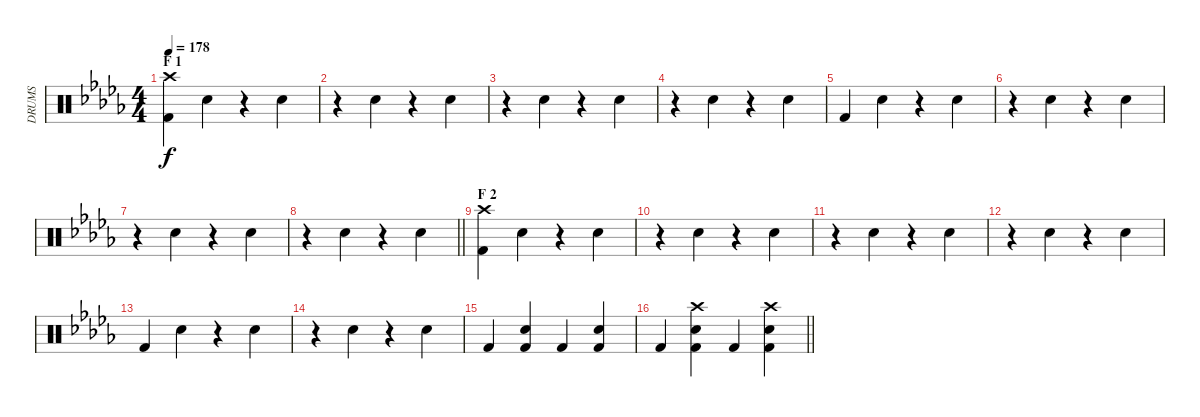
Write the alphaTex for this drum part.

\track ("DRUMS" "DRUMS") {instrument percussion}
\staff {score}
\articulation defaults
\ts (4 4)
\section ("" "F 1")
\tempo 178
\clef neutral
\ks db
("Crash high (hit)" "Kick (hit) 2").4{dy f} "Snare (hit) 2".4 r.4 "Snare (hit) 2".4 |
r.4 "Snare (hit) 2".4 r.4 "Snare (hit) 2".4 |
r.4 "Snare (hit) 2".4 r.4 "Snare (hit) 2".4 |
r.4 "Snare (hit) 2".4 r.4 "Snare (hit) 2".4 |
"Kick (hit) 2".4 "Snare (hit) 2".4 r.4 "Snare (hit) 2".4 |
r.4 "Snare (hit) 2".4 r.4 "Snare (hit) 2".4 |
r.4 "Snare (hit) 2".4 r.4 "Snare (hit) 2".4 |
\barLineRight lightlight
r.4 "Snare (hit) 2".4 r.4 "Snare (hit) 2".4 |
\section ("" "F 2")
("Crash high (hit)" "Kick (hit) 2").4 "Snare (hit) 2".4 r.4 "Snare (hit) 2".4 |
r.4 "Snare (hit) 2".4 r.4 "Snare (hit) 2".4 |
r.4 "Snare (hit) 2".4 r.4 "Snare (hit) 2".4 |
r.4 "Snare (hit) 2".4 r.4 "Snare (hit) 2".4 |
"Kick (hit) 2".4 "Snare (hit) 2".4 r.4 "Snare (hit) 2".4 |
r.4 "Snare (hit) 2".4 r.4 "Snare (hit) 2".4 |
"Kick (hit) 2".4 ("Kick (hit) 2" "Snare (hit) 2").4 "Kick (hit) 2".4 ("Kick (hit) 2" "Snare (hit) 2").4 |
\barLineRight lightlight "Kick (hit) 2".4
("Crash high (hit)" "Kick (hit) 2" "Snare (hit) 2").4 "Kick (hit) 2".4 ("Crash high (hit)" "Kick (hit) 2" "Snare (hit) 2").4
